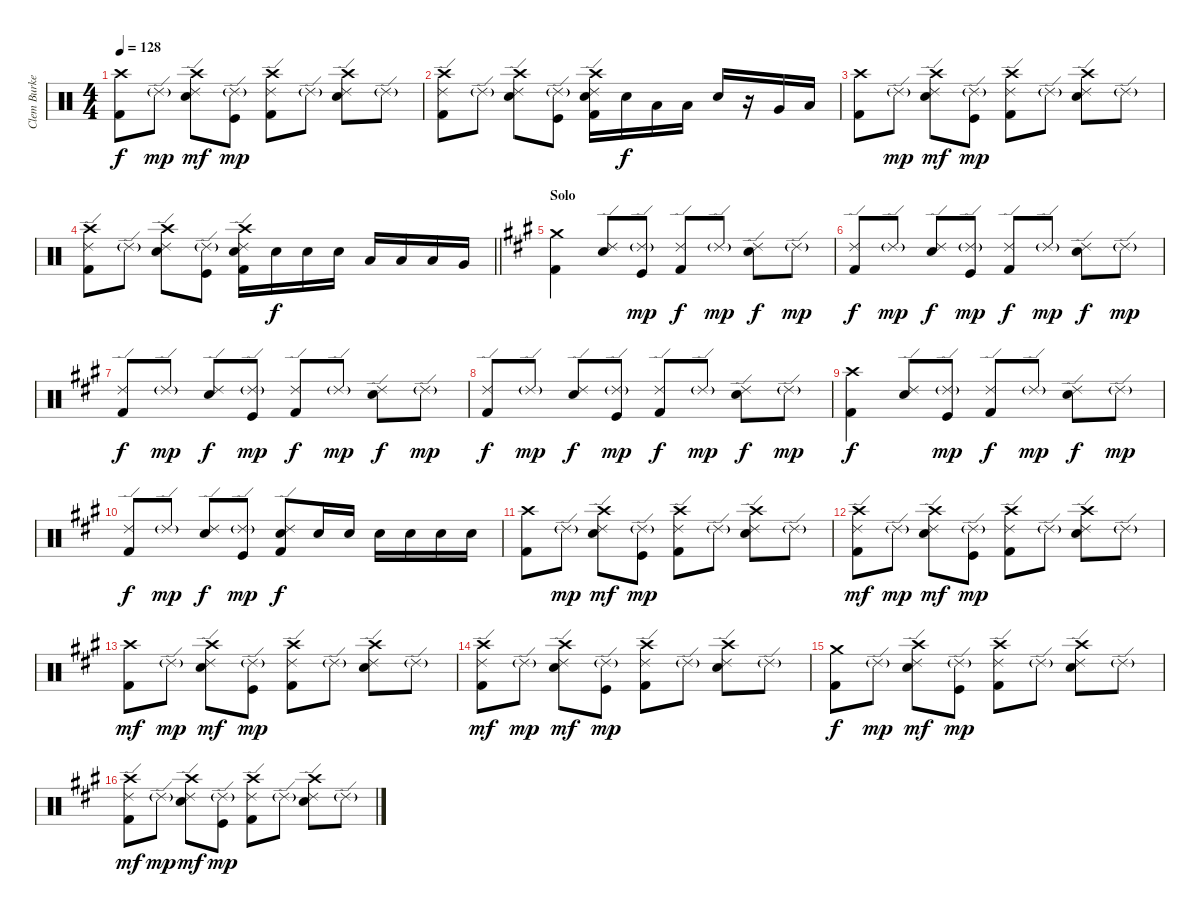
\track ("Clem Burke" "Clem Burke") {instrument percussion}
\staff {score}
\articulation defaults
\ts (4 4)
\tempo 128
\clef neutral
\ks c
("Crash high (hit)" "Kick (hit) 2").8{dy f} "Ride (edge) 2"{g}.8{dy mp} ("Ride (edge) 2" "Crash high (hit)" "Electric Snare (hit)").8{dy mf} ("Ride (edge) 2"{g} "Kick (hit)").8{dy mp} ("Ride (edge) 2" "Crash high (hit)" "Kick (hit) 2").8 "Ride (edge) 2"{g}.8 ("Ride (edge) 2" "Crash high (hit)" "Electric Snare (hit)").8 "Ride (edge) 2"{g}.8 |
("Crash high (hit)" "Ride (edge) 2" "Kick (hit) 2").8 "Ride (edge) 2"{g}.8 ("Ride (edge) 2" "Crash high (hit)" "Electric Snare (hit)").8 ("Ride (edge) 2"{g} "Kick (hit)").8 ("Ride (edge) 2" "Crash high (hit)" "Electric Snare (hit)" "Kick (hit) 2").16 "Electric Snare (hit)".16{dy f} "Low Tom (hit)".16 "Low Tom (hit)".16 "Electric Snare (hit)".16 r.16 "Very Low Tom (hit)".16 "Low Floor Tom (hit)".16 |
("Crash high (hit)" "Kick (hit) 2").8 "Ride (edge) 2"{g}.8{dy mp} ("Ride (edge) 2" "Crash high (hit)" "Electric Snare (hit)").8{dy mf} ("Ride (edge) 2"{g} "Kick (hit)").8{dy mp} ("Ride (edge) 2" "Crash high (hit)" "Kick (hit) 2").8 "Ride (edge) 2"{g}.8 ("Ride (edge) 2" "Crash high (hit)" "Electric Snare (hit)").8 "Ride (edge) 2"{g}.8 |
\barLineRight lightlight
("Crash high (hit)" "Ride (edge) 2" "Kick (hit) 2").8 "Ride (edge) 2"{g}.8 ("Ride (edge) 2" "Crash high (hit)" "Electric Snare (hit)").8 ("Ride (edge) 2"{g} "Kick (hit)").8 ("Ride (edge) 2" "Crash high (hit)" "Electric Snare (hit)" "Kick (hit) 2").16 "Electric Snare (hit)".16{dy f} "Electric Snare (hit)".16 "Electric Snare (hit)".16 "Low Tom (hit)".16 "Low Tom (hit)".16 "Low Tom (hit)".16 "Very Low Tom (hit)".16 |
\section ("" "Solo")
\ks a
("Crash medium (hit)" "Kick (hit) 2").4 ("Ride (edge) 2" "Electric Snare (hit)").8 ("Ride (edge) 2"{g} "Kick (hit)").8{dy mp} ("Ride (edge) 2" "Kick (hit) 2").8{dy f} "Ride (edge) 2"{g}.8{dy mp} ("Ride (edge) 2" "Electric Snare (hit)").8{dy f} "Ride (edge) 2"{g}.8{dy mp} |
("Ride (edge) 2" "Kick (hit) 2").8{dy f} "Ride (edge) 2"{g}.8{dy mp} ("Ride (edge) 2" "Electric Snare (hit)").8{dy f} ("Ride (edge) 2"{g} "Kick (hit)").8{dy mp} ("Ride (edge) 2" "Kick (hit) 2").8{dy f} "Ride (edge) 2"{g}.8{dy mp} ("Ride (edge) 2" "Electric Snare (hit)").8{dy f} "Ride (edge) 2"{g}.8{dy mp} |
("Ride (edge) 2" "Kick (hit) 2").8{dy f} "Ride (edge) 2"{g}.8{dy mp} ("Ride (edge) 2" "Electric Snare (hit)").8{dy f} ("Ride (edge) 2"{g} "Kick (hit)").8{dy mp} ("Ride (edge) 2" "Kick (hit) 2").8{dy f} "Ride (edge) 2"{g}.8{dy mp} ("Ride (edge) 2" "Electric Snare (hit)").8{dy f} "Ride (edge) 2"{g}.8{dy mp} |
("Ride (edge) 2" "Kick (hit) 2").8{dy f} "Ride (edge) 2"{g}.8{dy mp} ("Ride (edge) 2" "Electric Snare (hit)").8{dy f} ("Ride (edge) 2"{g} "Kick (hit)").8{dy mp} ("Ride (edge) 2" "Kick (hit) 2").8{dy f} "Ride (edge) 2"{g}.8{dy mp} ("Ride (edge) 2" "Electric Snare (hit)").8{dy f} "Ride (edge) 2"{g}.8{dy mp} |
("Crash high (hit)" "Kick (hit) 2").4{dy f} ("Ride (edge) 2" "Electric Snare (hit)").8 ("Ride (edge) 2"{g} "Kick (hit)").8{dy mp} ("Ride (edge) 2" "Kick (hit) 2").8{dy f} "Ride (edge) 2"{g}.8{dy mp} ("Ride (edge) 2" "Electric Snare (hit)").8{dy f} "Ride (edge) 2"{g}.8{dy mp} |
("Ride (edge) 2" "Kick (hit) 2").8{dy f} "Ride (edge) 2"{g}.8{dy mp} ("Ride (edge) 2" "Electric Snare (hit)").8{dy f} ("Ride (edge) 2"{g} "Kick (hit)").8{dy mp} ("Ride (edge) 2" "Electric Snare (hit)" "Kick (hit) 2").8{dy f} "Electric Snare (hit)".16 "Electric Snare (hit)".16 "Electric Snare (hit)".16 "Electric Snare (hit)".16 "Electric Snare (hit)".16 "Electric Snare (hit)".16 |
("Crash high (hit)" "Kick (hit) 2").8 "Ride (edge) 2"{g}.8{dy mp} ("Ride (edge) 2" "Crash high (hit)" "Electric Snare (hit)").8{dy mf} ("Ride (edge) 2"{g} "Kick (hit)").8{dy mp} ("Ride (edge) 2" "Crash high (hit)" "Kick (hit) 2").8 "Ride (edge) 2"{g}.8 ("Ride (edge) 2" "Crash high (hit)" "Electric Snare (hit)").8 "Ride (edge) 2"{g}.8 |
("Crash high (hit)" "Ride (edge) 2" "Kick (hit) 2").8{dy mf} "Ride (edge) 2"{g}.8{dy mp} ("Ride (edge) 2" "Crash high (hit)" "Electric Snare (hit)").8{dy mf} ("Ride (edge) 2"{g} "Kick (hit)").8{dy mp} ("Ride (edge) 2" "Crash high (hit)" "Kick (hit) 2").8 "Ride (edge) 2"{g}.8 ("Ride (edge) 2" "Crash high (hit)" "Electric Snare (hit)").8 "Ride (edge) 2"{g}.8 |
("Crash high (hit)" "Kick (hit) 2").8{dy mf} "Ride (edge) 2"{g}.8{dy mp} ("Ride (edge) 2" "Crash high (hit)" "Electric Snare (hit)").8{dy mf} ("Ride (edge) 2"{g} "Kick (hit)").8{dy mp} ("Ride (edge) 2" "Crash high (hit)" "Kick (hit) 2").8 "Ride (edge) 2"{g}.8 ("Ride (edge) 2" "Crash high (hit)" "Electric Snare (hit)").8 "Ride (edge) 2"{g}.8 |
("Crash high (hit)" "Ride (edge) 2" "Kick (hit) 2").8{dy mf} "Ride (edge) 2"{g}.8{dy mp} ("Ride (edge) 2" "Crash high (hit)" "Electric Snare (hit)").8{dy mf} ("Ride (edge) 2"{g} "Kick (hit)").8{dy mp} ("Ride (edge) 2" "Crash high (hit)" "Kick (hit) 2").8 "Ride (edge) 2"{g}.8 ("Ride (edge) 2" "Crash high (hit)" "Electric Snare (hit)").8 "Ride (edge) 2"{g}.8 |
("Crash medium (hit)" "Kick (hit) 2").8{dy f} "Ride (edge) 2"{g}.8{dy mp} ("Ride (edge) 2" "Crash high (hit)" "Electric Snare (hit)").8{dy mf} ("Ride (edge) 2"{g} "Kick (hit)").8{dy mp} ("Ride (edge) 2" "Crash high (hit)" "Kick (hit) 2").8 "Ride (edge) 2"{g}.8 ("Ride (edge) 2" "Crash high (hit)" "Electric Snare (hit)").8 "Ride (edge) 2"{g}.8 |
("Crash high (hit)" "Ride (edge) 2" "Kick (hit) 2").8{dy mf} "Ride (edge) 2"{g}.8{dy mp} ("Ride (edge) 2" "Crash high (hit)" "Electric Snare (hit)").8{dy mf} ("Ride (edge) 2"{g} "Kick (hit)").8{dy mp} ("Ride (edge) 2" "Crash high (hit)" "Kick (hit) 2").8 "Ride (edge) 2"{g}.8 ("Ride (edge) 2" "Crash high (hit)" "Electric Snare (hit)").8 "Ride (edge) 2"{g}.8
